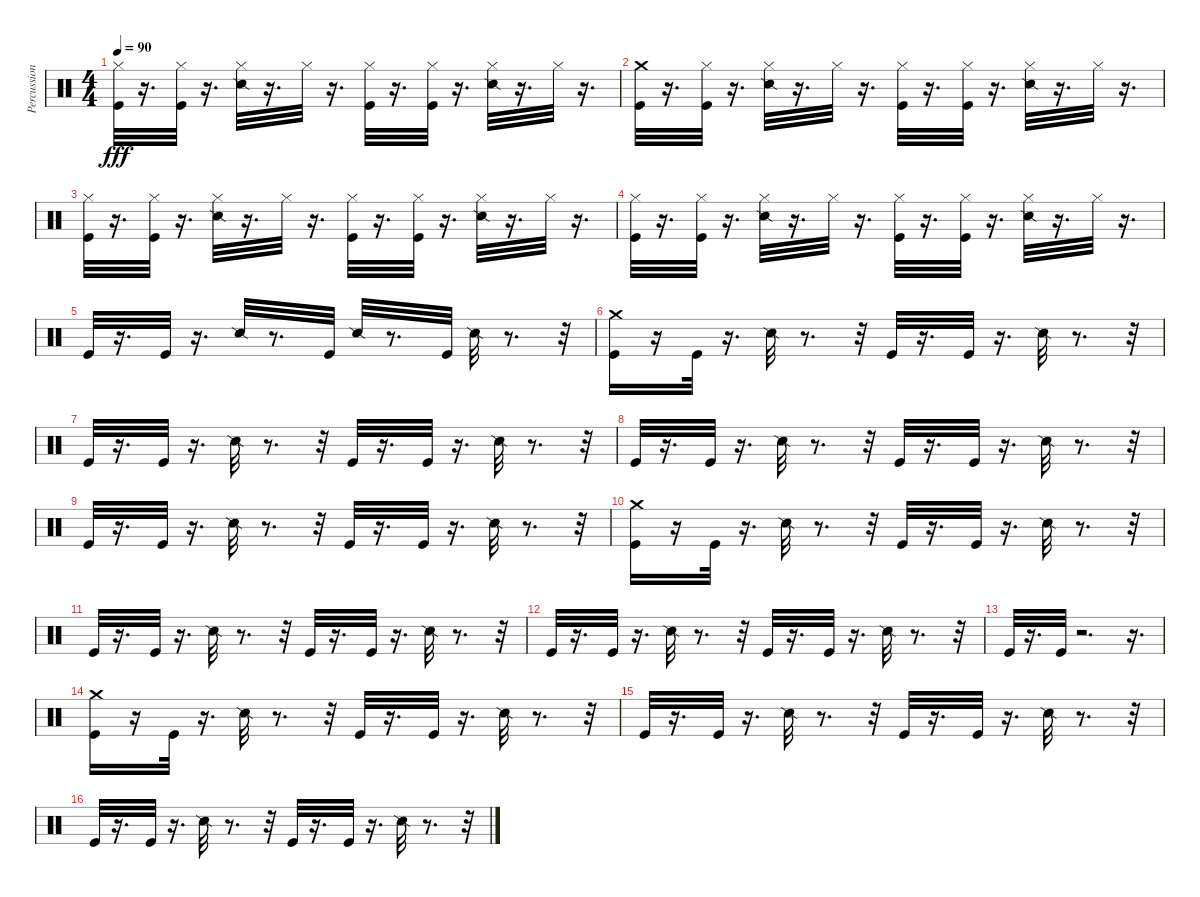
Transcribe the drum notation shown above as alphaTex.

\track ("Percussion" "Percussion") {instrument percussion}
\staff {score}
\articulation defaults
\ts (4 4)
\tempo 90
\clef neutral
\ks c
("Kick (hit)" "Hi-Hat (closed)").32{dy fff} r.16{d} ("Kick (hit)" "Hi-Hat (closed)").32 r.16{d} ("Snare (side stick) 2" "Hi-Hat (closed)").32 r.16{d} "Hi-Hat (closed)".32 r.16{d} ("Kick (hit)" "Hi-Hat (closed)").32 r.16{d} ("Kick (hit)" "Hi-Hat (closed)").32 r.16{d} ("Snare (side stick) 2" "Hi-Hat (closed)").32 r.16{d} "Hi-Hat (closed)".32 r.16{d} |
("Kick (hit)" "Crash medium (hit)").32 r.16{d} ("Kick (hit)" "Hi-Hat (closed)").32 r.16{d} ("Snare (side stick) 2" "Hi-Hat (closed)").32 r.16{d} "Hi-Hat (closed)".32 r.16{d} ("Kick (hit)" "Hi-Hat (closed)").32 r.16{d} ("Kick (hit)" "Hi-Hat (closed)").32 r.16{d} ("Snare (side stick) 2" "Hi-Hat (closed)").32 r.16{d} "Hi-Hat (closed)".32 r.16{d} |
("Kick (hit)" "Hi-Hat (closed)").32 r.16{d} ("Kick (hit)" "Hi-Hat (closed)").32 r.16{d} ("Snare (side stick) 2" "Hi-Hat (closed)").32 r.16{d} "Hi-Hat (closed)".32 r.16{d} ("Kick (hit)" "Hi-Hat (closed)").32 r.16{d} ("Kick (hit)" "Hi-Hat (closed)").32 r.16{d} ("Snare (side stick) 2" "Hi-Hat (closed)").32 r.16{d} "Hi-Hat (closed)".32 r.16{d} |
("Kick (hit)" "Hi-Hat (closed)").32 r.16{d} ("Kick (hit)" "Hi-Hat (closed)").32 r.16{d} ("Snare (side stick) 2" "Hi-Hat (closed)").32 r.16{d} "Hi-Hat (closed)".32 r.16{d} ("Kick (hit)" "Hi-Hat (closed)").32 r.16{d} ("Kick (hit)" "Hi-Hat (closed)").32 r.16{d} ("Snare (side stick) 2" "Hi-Hat (closed)").32 r.16{d} "Hi-Hat (closed)".32 r.16{d} |
"Kick (hit)".32 r.16{d} "Kick (hit)".32 r.16{d} "Snare (side stick) 2".32 r.8{d} "Kick (hit)".32 "Snare (side stick) 2".32 r.8{d} "Kick (hit)".32 "Snare (side stick) 2".32 r.8{d} r.32 |
("Crash medium (hit)" "Kick (hit)").16 r.16 "Kick (hit)".32 r.16{d} "Snare (side stick) 2".32 r.8{d} r.32 "Kick (hit)".32 r.16{d} "Kick (hit)".32 r.16{d} "Snare (side stick) 2".32 r.8{d} r.32 |
"Kick (hit)".32 r.16{d} "Kick (hit)".32 r.16{d} "Snare (side stick) 2".32 r.8{d} r.32 "Kick (hit)".32 r.16{d} "Kick (hit)".32 r.16{d} "Snare (side stick) 2".32 r.8{d} r.32 |
"Kick (hit)".32 r.16{d} "Kick (hit)".32 r.16{d} "Snare (side stick) 2".32 r.8{d} r.32 "Kick (hit)".32 r.16{d} "Kick (hit)".32 r.16{d} "Snare (side stick) 2".32 r.8{d} r.32 |
"Kick (hit)".32 r.16{d} "Kick (hit)".32 r.16{d} "Snare (side stick) 2".32 r.8{d} r.32 "Kick (hit)".32 r.16{d} "Kick (hit)".32 r.16{d} "Snare (side stick) 2".32 r.8{d} r.32 |
("Kick (hit)" "Crash medium (hit)").16 r.16 "Kick (hit)".32 r.16{d} "Snare (side stick) 2".32 r.8{d} r.32 "Kick (hit)".32 r.16{d} "Kick (hit)".32 r.16{d} "Snare (side stick) 2".32 r.8{d} r.32 |
"Kick (hit)".32 r.16{d} "Kick (hit)".32 r.16{d} "Snare (side stick) 2".32 r.8{d} r.32 "Kick (hit)".32 r.16{d} "Kick (hit)".32 r.16{d} "Snare (side stick) 2".32 r.8{d} r.32 |
"Kick (hit)".32 r.16{d} "Kick (hit)".32 r.16{d} "Snare (side stick) 2".32 r.8{d} r.32 "Kick (hit)".32 r.16{d} "Kick (hit)".32 r.16{d} "Snare (side stick) 2".32 r.8{d} r.32 |
"Kick (hit)".32 r.16{d} "Kick (hit)".32 r.2{d} r.16{d} |
("Kick (hit)" "Crash medium (hit)").16 r.16 "Kick (hit)".32 r.16{d} "Snare (side stick) 2".32 r.8{d} r.32 "Kick (hit)".32 r.16{d} "Kick (hit)".32 r.16{d} "Snare (side stick) 2".32 r.8{d} r.32 |
"Kick (hit)".32 r.16{d} "Kick (hit)".32 r.16{d} "Snare (side stick) 2".32 r.8{d} r.32 "Kick (hit)".32 r.16{d} "Kick (hit)".32 r.16{d} "Snare (side stick) 2".32 r.8{d} r.32 |
"Kick (hit)".32 r.16{d} "Kick (hit)".32 r.16{d} "Snare (side stick) 2".32 r.8{d} r.32 "Kick (hit)".32 r.16{d} "Kick (hit)".32 r.16{d} "Snare (side stick) 2".32 r.8{d} r.32
